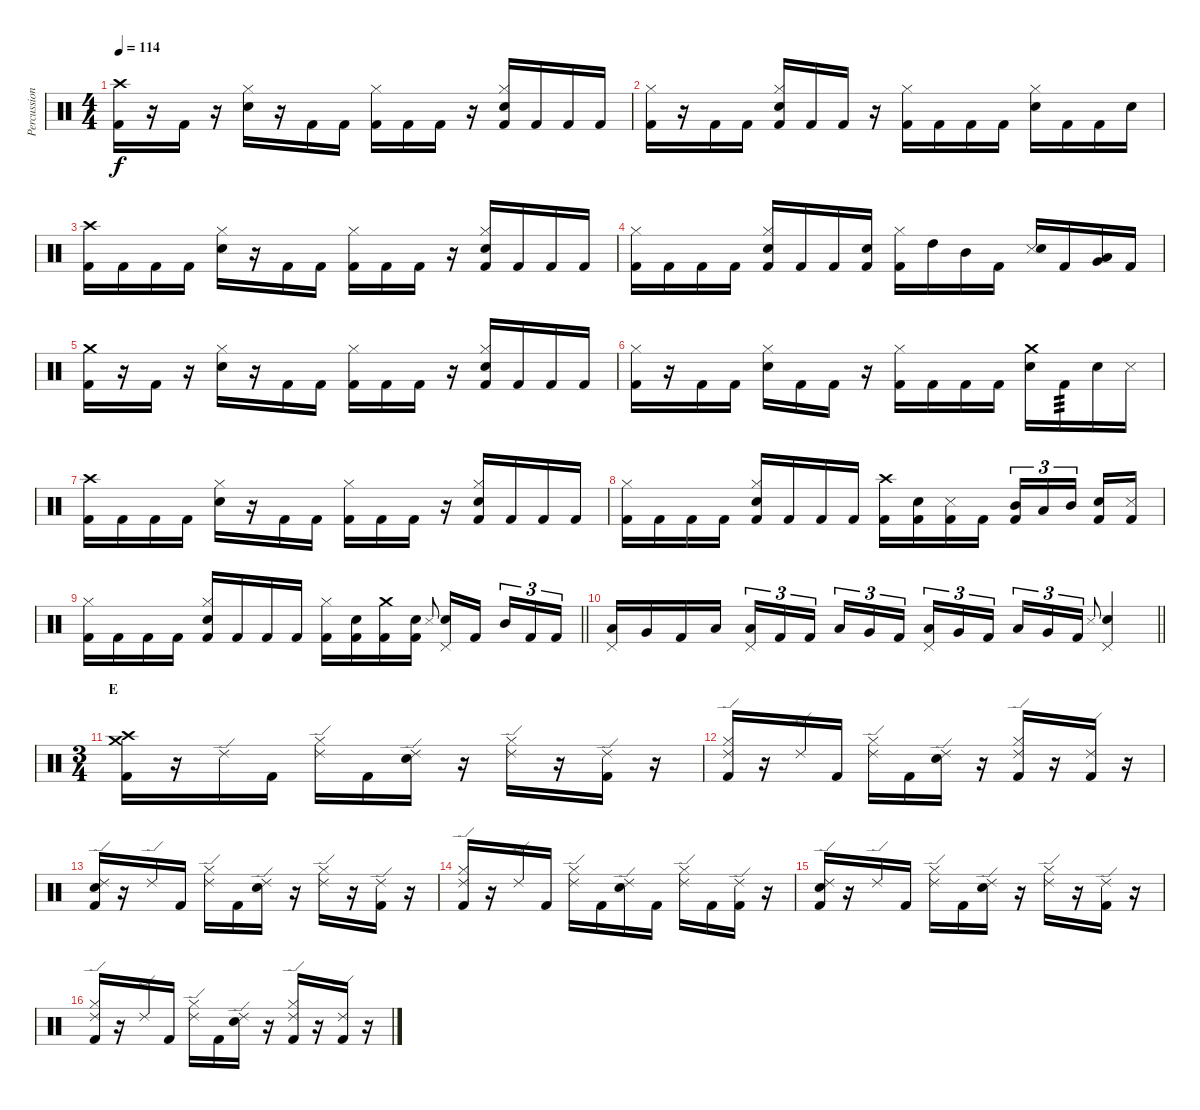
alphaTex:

\track ("Percussion" "Percussion") {instrument percussion}
\staff {score}
\articulation defaults
\ts (4 4)
\tempo 114
\clef neutral
\ks c
("Crash high (hit)" "Kick (hit) 2").16{dy f} r.16 "Kick (hit) 2".16 r.16 ("Hi-Hat (closed)" "Snare (hit) 2").16 r.16 "Kick (hit) 2".16 "Kick (hit) 2".16 ("Hi-Hat (closed)" "Kick (hit) 2").16 "Kick (hit) 2".16 "Kick (hit) 2".16 r.16 ("Hi-Hat (closed)" "Snare (hit) 2" "Kick (hit) 2").16 "Kick (hit) 2".16 "Kick (hit) 2".16 "Kick (hit) 2".16 |
("Hi-Hat (closed)" "Kick (hit) 2").16 r.16 "Kick (hit) 2".16 "Kick (hit) 2".16 ("Hi-Hat (closed)" "Snare (hit) 2" "Kick (hit) 2").16 "Kick (hit) 2".16 "Kick (hit) 2".16 r.16 ("Hi-Hat (closed)" "Kick (hit) 2").16 "Kick (hit) 2".16 "Kick (hit) 2".16 "Kick (hit) 2".16 ("Hi-Hat (closed)" "Snare (hit) 2").16 "Kick (hit) 2".16 "Kick (hit) 2".16 "Snare (hit) 2".16 |
("Crash high (hit)" "Kick (hit) 2").16 "Kick (hit) 2".16 "Kick (hit) 2".16 "Kick (hit) 2".16 ("Hi-Hat (closed)" "Snare (hit) 2").16 r.16 "Kick (hit) 2".16 "Kick (hit) 2".16 ("Hi-Hat (closed)" "Kick (hit) 2").16 "Kick (hit) 2".16 "Kick (hit) 2".16 r.16 ("Hi-Hat (closed)" "Snare (hit) 2" "Kick (hit) 2").16 "Kick (hit) 2".16 "Kick (hit) 2".16 "Kick (hit) 2".16 |
("Hi-Hat (closed)" "Kick (hit) 2").16 "Kick (hit) 2".16 "Kick (hit) 2".16 "Kick (hit) 2".16 ("Hi-Hat (closed)" "Snare (hit) 2" "Kick (hit) 2").16 "Kick (hit) 2".16 "Kick (hit) 2".16 ("Snare (hit) 2" "Kick (hit) 2").16 ("Hi-Hat (closed)" "Kick (hit) 2").16 "High Tom (hit)".16 "Mid Tom (hit)".16 "Kick (hit) 2".16 ("Metronome (hit)" "Snare (hit) 2").16{bu 60} "Kick (hit) 2".16 ("Low Tom (hit)" "Very Low Tom (hit)").16{bu 60} "Kick (hit) 2".16 |
("Crash medium (hit)" "Kick (hit) 2").16 r.16 "Kick (hit) 2".16 r.16 ("Hi-Hat (closed)" "Snare (hit) 2").16 r.16 "Kick (hit) 2".16 "Kick (hit) 2".16 ("Hi-Hat (closed)" "Kick (hit) 2").16 "Kick (hit) 2".16 "Kick (hit) 2".16 r.16 ("Hi-Hat (closed)" "Snare (hit) 2" "Kick (hit) 2").16 "Kick (hit) 2".16 "Kick (hit) 2".16 "Kick (hit) 2".16 |
("Hi-Hat (closed)" "Kick (hit) 2").16 r.16 "Kick (hit) 2".16 "Kick (hit) 2".16 ("Hi-Hat (closed)" "Snare (hit) 2").16 "Kick (hit) 2".16 "Kick (hit) 2".16 r.16 ("Hi-Hat (closed)" "Kick (hit) 2").16 "Kick (hit) 2".16 "Kick (hit) 2".16 "Kick (hit) 2".16 ("Crash medium (hit)" "Snare (hit) 2").16 "Kick (hit) 2".16{tp 3} "Snare (hit) 2".16 "Metronome (hit)".16 |
("Crash high (hit)" "Kick (hit) 2").16 "Kick (hit) 2".16 "Kick (hit) 2".16 "Kick (hit) 2".16 ("Hi-Hat (closed)" "Snare (hit) 2").16 r.16 "Kick (hit) 2".16 "Kick (hit) 2".16 ("Hi-Hat (closed)" "Kick (hit) 2").16 "Kick (hit) 2".16 "Kick (hit) 2".16 r.16 ("Hi-Hat (closed)" "Snare (hit) 2" "Kick (hit) 2").16 "Kick (hit) 2".16 "Kick (hit) 2".16 "Kick (hit) 2".16 |
("Hi-Hat (closed)" "Kick (hit) 2").16 "Kick (hit) 2".16 "Kick (hit) 2".16 "Kick (hit) 2".16 ("Hi-Hat (closed)" "Snare (hit) 2" "Kick (hit) 2").16 "Kick (hit) 2".16 "Kick (hit) 2".16 "Kick (hit) 2".16 ("Crash high (hit)" "Kick (hit) 2").16 ("Snare (hit) 2" "Kick (hit) 2").16 ("Metronome (hit)" "Kick (hit) 2").16 "Kick (hit) 2".16 ("Mid Tom (hit)" "Kick (hit) 2").16{tu (3 2)} "Low Tom (hit)".16{tu (3 2)} "Mid Tom (hit)".16{tu (3 2) beam splitsecondary} ("Snare (hit) 2" "Kick (hit) 2").16 ("Metronome (hit)" "Kick (hit) 2").16 |
\barLineRight lightlight
("Hi-Hat (closed)" "Kick (hit) 2").16 "Kick (hit) 2".16 "Kick (hit) 2".16 "Kick (hit) 2".16 ("Hi-Hat (closed)" "Snare (hit) 2" "Kick (hit) 2").16 "Kick (hit) 2".16 "Kick (hit) 2".16 "Kick (hit) 2".16 ("Hi-Hat (closed)" "Kick (hit) 2").16 ("Snare (hit) 2" "Kick (hit) 2").16 ("Crash medium (hit)" "Kick (hit) 2").16 ("Snare (hit)" "Kick (hit) 2").16 "Metronome (hit)".8{gr onbeat} ("Pedal Hi-Hat (hit)" "Snare (hit) 2").16 "Kick (hit) 2".16{beam splitsecondary} "Mid Tom (hit)".16{tu (3 2)} "Kick (hit) 2".16{tu (3 2)} "Kick (hit) 2".16{tu (3 2)} |
\barLineRight lightlight
("Pedal Hi-Hat (hit)" "Low Tom (hit)").16 "Very Low Tom (hit)".16 "Kick (hit) 2".16 "Low Tom (hit)".16 ("Pedal Hi-Hat (hit)" "Low Tom (hit)").16{tu (3 2)} "Kick (hit) 2".16{tu (3 2)} "Kick (hit) 2".16{tu (3 2) beam splitsecondary} "Low Tom (hit)".16{tu (3 2)} "Very Low Tom (hit)".16{tu (3 2)} "Kick (hit) 2".16{tu (3 2)} ("Pedal Hi-Hat (hit)" "Low Tom (hit)").16{tu (3 2)} "Very Low Tom (hit)".16{tu (3 2)} "Kick (hit) 2".16{tu (3 2) beam splitsecondary} "Low Tom (hit)".16{tu (3 2)} "Very Low Tom (hit)".16{tu (3 2)} "Kick (hit) 2".16{tu (3 2)} "Metronome (hit)".8{gr onbeat} ("Pedal Hi-Hat (hit)" "Snare (hit) 2").4 |
\ts (3 4)
\section ("" "E")
("Crash medium (hit)" "Crash high (hit)" "Kick (hit) 2").16 r.16 "Ride (edge) 2".16 "Kick (hit) 2".16 ("Ride (edge) 2" "Hi-Hat (closed)").16 "Kick (hit) 2".16 ("Ride (edge) 2" "Snare (hit) 2").16 r.16 ("Ride (edge) 2" "Hi-Hat (closed)").16 r.16 ("Ride (edge) 2" "Kick (hit) 2").16 r.16 |
("Ride (edge) 2" "Hi-Hat (closed)" "Kick (hit) 2").16 r.16 "Ride (edge) 2".16 "Kick (hit) 2".16 ("Ride (edge) 2" "Hi-Hat (closed)").16 "Kick (hit) 2".16 ("Ride (edge) 2" "Snare (hit) 2").16 r.16 ("Ride (edge) 2" "Hi-Hat (closed)" "Kick (hit) 2").16 r.16 ("Ride (edge) 2" "Kick (hit) 2").16 r.16 |
("Ride (edge) 2" "Snare (hit)" "Kick (hit) 2").16 r.16 "Ride (edge) 2".16 "Kick (hit) 2".16 ("Ride (edge) 2" "Hi-Hat (closed)").16 "Kick (hit) 2".16 ("Ride (edge) 2" "Snare (hit) 2").16 r.16 ("Ride (edge) 2" "Hi-Hat (closed)").16 r.16 ("Ride (edge) 2" "Kick (hit) 2").16 r.16 |
("Ride (edge) 2" "Hi-Hat (closed)" "Kick (hit) 2").16 r.16 "Ride (edge) 2".16 "Kick (hit) 2".16 ("Ride (edge) 2" "Hi-Hat (closed)").16 "Kick (hit) 2".16 ("Ride (edge) 2" "Snare (hit) 2").16 "Kick (hit) 2".16 ("Ride (edge) 2" "Hi-Hat (closed)").16 "Kick (hit) 2".16 ("Ride (edge) 2" "Kick (hit) 2").16 r.16 |
("Ride (edge) 2" "Snare (hit)" "Kick (hit) 2").16 r.16 "Ride (edge) 2".16 "Kick (hit) 2".16 ("Ride (edge) 2" "Hi-Hat (closed)").16 "Kick (hit) 2".16 ("Ride (edge) 2" "Snare (hit) 2").16 r.16 ("Ride (edge) 2" "Hi-Hat (closed)").16 r.16 ("Ride (edge) 2" "Kick (hit) 2").16 r.16 |
("Ride (edge) 2" "Hi-Hat (closed)" "Kick (hit) 2").16 r.16 "Ride (edge) 2".16 "Kick (hit) 2".16 ("Ride (edge) 2" "Hi-Hat (closed)").16 "Kick (hit) 2".16 ("Ride (edge) 2" "Snare (hit) 2").16 r.16 ("Ride (edge) 2" "Hi-Hat (closed)" "Kick (hit) 2").16 r.16 ("Ride (edge) 2" "Kick (hit) 2").16 r.16
